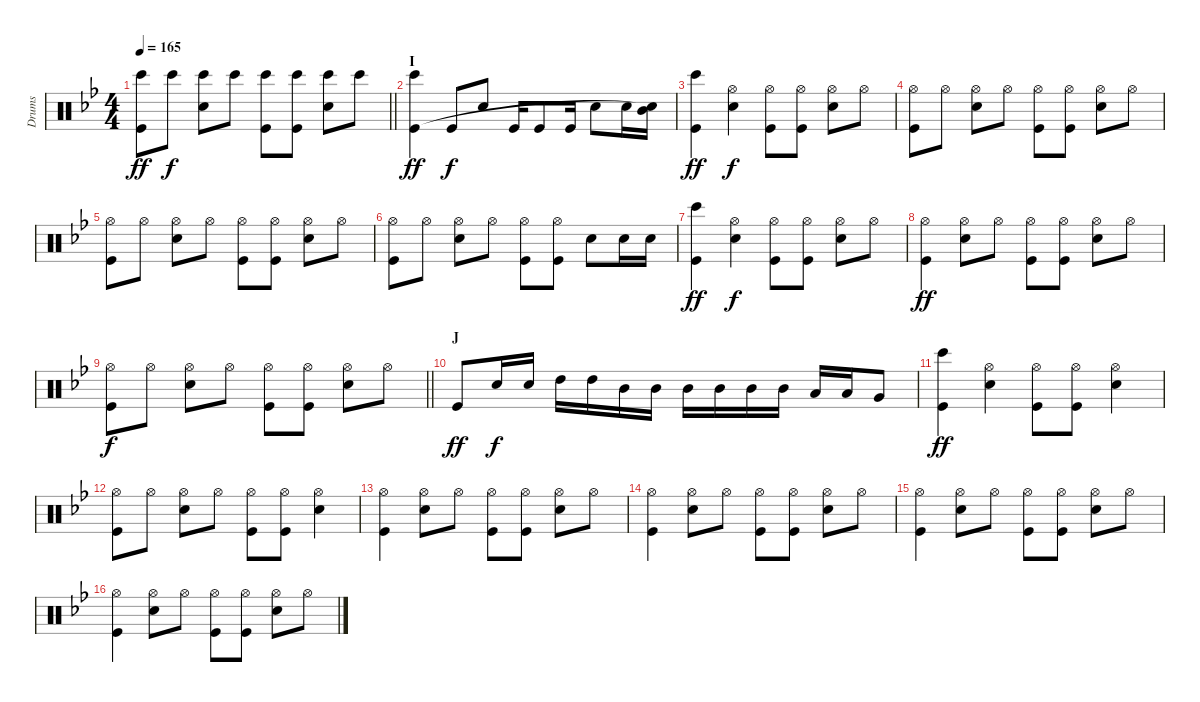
\track ("Drums" "Drums") {instrument percussion}
\staff {score}
\articulation defaults
\ts (4 4)
\tempo 165
\clef neutral
\barLineRight lightlight
\ks bb
("Bongo High (hit)" "Kick (hit)").8{dy ff} "Bongo High (hit)".8{dy f} ("Bongo High (hit)" "Snare (hit) 2").8 "Bongo High (hit)".8 ("Bongo High (hit)" "Kick (hit)").8 ("Bongo High (hit)" "Kick (hit)").8 ("Bongo High (hit)" "Snare (hit) 2").8 "Bongo High (hit)".8 |
\section ("" "I")
("Bongo High (hit)" "Kick (hit)").4{dy ff} "Kick (hit)".8{dy f} "Snare (hit) 2".8 "Kick (hit)".16 "Kick (hit)".8 "Kick (hit)".16 "Snare (hit) 2".8 "Snare (hit) 2".16 ("Mid Tom (hit)" "Snare (hit)"{t}).16 |
("Bongo High (hit)" "Kick (hit)").4{dy ff} ("Hi-Hat (open)" "Snare (hit) 2").4{dy f} ("Hi-Hat (open)" "Kick (hit)").8 ("Hi-Hat (open)" "Kick (hit)").8 ("Hi-Hat (open)" "Snare (hit) 2").8 "Hi-Hat (open)".8 |
("Hi-Hat (open)" "Kick (hit)").8 "Hi-Hat (open)".8 ("Hi-Hat (open)" "Snare (hit) 2").8 "Hi-Hat (open)".8 ("Hi-Hat (open)" "Kick (hit)").8 ("Hi-Hat (open)" "Kick (hit)").8 ("Hi-Hat (open)" "Snare (hit) 2").8 "Hi-Hat (open)".8 |
("Hi-Hat (open)" "Kick (hit)").8 "Hi-Hat (open)".8 ("Hi-Hat (open)" "Snare (hit) 2").8 "Hi-Hat (open)".8 ("Hi-Hat (open)" "Kick (hit)").8 ("Hi-Hat (open)" "Kick (hit)").8 ("Hi-Hat (open)" "Snare (hit) 2").8 "Hi-Hat (open)".8 |
("Hi-Hat (open)" "Kick (hit)").8 "Hi-Hat (open)".8 ("Hi-Hat (open)" "Snare (hit) 2").8 "Hi-Hat (open)".8 ("Hi-Hat (open)" "Kick (hit)").8 ("Hi-Hat (open)" "Kick (hit)").8 "Snare (hit) 2".8 "Snare (hit) 2".16 "Snare (hit) 2".16 |
("Bongo High (hit)" "Kick (hit)").4{dy ff} ("Hi-Hat (open)" "Snare (hit) 2").4{dy f} ("Hi-Hat (open)" "Kick (hit)").8 ("Hi-Hat (open)" "Kick (hit)").8 ("Hi-Hat (open)" "Snare (hit) 2").8 "Hi-Hat (open)".8 |
("Hi-Hat (open)" "Kick (hit)").4{dy ff} ("Hi-Hat (open)" "Snare (hit) 2").8 "Hi-Hat (open)".8 ("Hi-Hat (open)" "Kick (hit)").8 ("Hi-Hat (open)" "Kick (hit)").8 ("Hi-Hat (open)" "Snare (hit) 2").8 "Hi-Hat (open)".8 |
\barLineRight lightlight
("Hi-Hat (open)" "Kick (hit)").8{dy f} "Hi-Hat (open)".8 ("Hi-Hat (open)" "Snare (hit) 2").8 "Hi-Hat (open)".8 ("Hi-Hat (open)" "Kick (hit)").8 ("Hi-Hat (open)" "Kick (hit)").8 ("Hi-Hat (open)" "Snare (hit) 2").8 "Hi-Hat (open)".8 |
\section ("" "J")
"Kick (hit)".8{dy ff} "Snare (hit) 2".16{dy f} "Snare (hit) 2".16 "High Tom (hit)".16 "High Tom (hit)".16 "Mid Tom (hit)".16 "Mid Tom (hit)".16 "Mid Tom (hit)".16 "Mid Tom (hit)".16 "Mid Tom (hit)".16 "Mid Tom (hit)".16 "Low Tom (hit)".16 "Low Tom (hit)".16 "Very Low Tom (hit)".8 |
("Bongo High (hit)" "Kick (hit)").4{dy ff} ("Hi-Hat (open)" "Snare (hit) 2").4 ("Hi-Hat (open)" "Kick (hit)").8 ("Hi-Hat (open)" "Kick (hit)").8 ("Hi-Hat (open)" "Snare (hit) 2").4 |
("Hi-Hat (open)" "Kick (hit)").8 "Hi-Hat (open)".8 ("Hi-Hat (open)" "Snare (hit) 2").8 "Hi-Hat (open)".8 ("Hi-Hat (open)" "Kick (hit)").8 ("Hi-Hat (open)" "Kick (hit)").8 ("Hi-Hat (open)" "Snare (hit) 2").4 |
("Hi-Hat (open)" "Kick (hit)").4 ("Hi-Hat (open)" "Snare (hit) 2").8 "Hi-Hat (open)".8 ("Hi-Hat (open)" "Kick (hit)").8 ("Hi-Hat (open)" "Kick (hit)").8 ("Hi-Hat (open)" "Snare (hit) 2").8 "Hi-Hat (open)".8 |
("Hi-Hat (open)" "Kick (hit)").4 ("Hi-Hat (open)" "Snare (hit) 2").8 "Hi-Hat (open)".8 ("Hi-Hat (open)" "Kick (hit)").8 ("Hi-Hat (open)" "Kick (hit)").8 ("Hi-Hat (open)" "Snare (hit) 2").8 "Hi-Hat (open)".8 |
("Hi-Hat (open)" "Kick (hit)").4 ("Hi-Hat (open)" "Snare (hit) 2").8 "Hi-Hat (open)".8 ("Hi-Hat (open)" "Kick (hit)").8 ("Hi-Hat (open)" "Kick (hit)").8 ("Hi-Hat (open)" "Snare (hit) 2").8 "Hi-Hat (open)".8 |
("Hi-Hat (open)" "Kick (hit)").4 ("Hi-Hat (open)" "Snare (hit) 2").8 "Hi-Hat (open)".8 ("Hi-Hat (open)" "Kick (hit)").8 ("Hi-Hat (open)" "Kick (hit)").8 ("Hi-Hat (open)" "Snare (hit) 2").8 "Hi-Hat (open)".8
